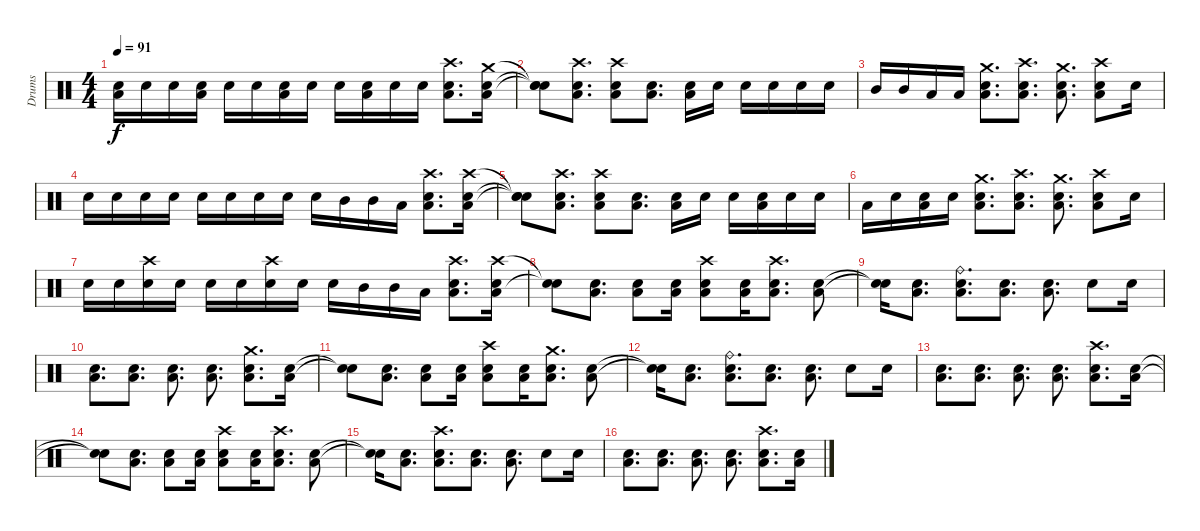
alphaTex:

\track ("Drums" "Drums") {instrument percussion}
\staff {score}
\articulation defaults
\ts (4 4)
\tempo 91
\clef neutral
\ks c
("Low Tom (hit)" "Electric Snare (hit)").16{dy f} "Electric Snare (hit)".16 "Electric Snare (hit)".16 ("Low Tom (hit)" "Electric Snare (hit)").16 "Electric Snare (hit)".16 "Electric Snare (hit)".16 ("Low Tom (hit)" "Electric Snare (hit)").16 "Electric Snare (hit)".16 "Electric Snare (hit)".16 ("Low Tom (hit)" "Electric Snare (hit)").16 "Electric Snare (hit)".16 "Electric Snare (hit)".16 ("Crash high (hit)" "Low Tom (hit)" "Electric Snare (hit)").8{d} ("Crash medium (hit)" "Low Tom (hit)" "Electric Snare (hit)").16 |
("Snare (hit)"{t} "Snare (hit)"{t} "Snare (hit)"{t}).8 ("Crash high (hit)" "Low Tom (hit)" "Electric Snare (hit)").8{d} ("Crash high (hit)" "Low Tom (hit)" "Electric Snare (hit)").8 ("Low Tom (hit)" "Electric Snare (hit)").8{d} ("Low Tom (hit)" "Electric Snare (hit)").16 "Electric Snare (hit)".16 "Electric Snare (hit)".16 "Electric Snare (hit)".16 "Electric Snare (hit)".16 "Electric Snare (hit)".16 |
"Mid Tom (hit)".16 "Mid Tom (hit)".16 "Low Tom (hit)".16 "Low Tom (hit)".16 ("Crash medium (hit)" "Low Tom (hit)" "Electric Snare (hit)").8{d} ("Crash high (hit)" "Low Tom (hit)" "Electric Snare (hit)").8{d} ("Crash medium (hit)" "Low Tom (hit)" "Electric Snare (hit)").8{d} ("Crash high (hit)" "Low Tom (hit)" "Electric Snare (hit)").8 "Electric Snare (hit)".16 |
"Electric Snare (hit)".16 "Electric Snare (hit)".16 "Electric Snare (hit)".16 "Electric Snare (hit)".16 "Electric Snare (hit)".16 "Electric Snare (hit)".16 "Electric Snare (hit)".16 "Electric Snare (hit)".16 "Electric Snare (hit)".16 "Mid Tom (hit)".16 "Mid Tom (hit)".16 "Low Tom (hit)".16 ("Crash high (hit)" "Low Tom (hit)" "Electric Snare (hit)").8{d} ("Crash high (hit)" "Low Tom (hit)" "Electric Snare (hit)").16 |
("Snare (hit)"{t} "Snare (hit)"{t} "Snare (hit)"{t}).8 ("Crash high (hit)" "Low Tom (hit)" "Electric Snare (hit)").8{d} ("Crash high (hit)" "Low Tom (hit)" "Electric Snare (hit)").8 ("Low Tom (hit)" "Electric Snare (hit)").8{d} ("Low Tom (hit)" "Electric Snare (hit)").16 "Electric Snare (hit)".16 "Electric Snare (hit)".16 ("Low Tom (hit)" "Electric Snare (hit)").16 "Electric Snare (hit)".16 "Electric Snare (hit)".16 |
"Low Tom (hit)".16 "Electric Snare (hit)".16 ("Low Tom (hit)" "Electric Snare (hit)").16 "Electric Snare (hit)".16 ("Crash medium (hit)" "Low Tom (hit)" "Electric Snare (hit)").8{d} ("Crash high (hit)" "Low Tom (hit)" "Electric Snare (hit)").8{d} ("Crash medium (hit)" "Low Tom (hit)" "Electric Snare (hit)").8{d} ("Crash high (hit)" "Low Tom (hit)" "Electric Snare (hit)").8 "Electric Snare (hit)".16 |
"Electric Snare (hit)".16 "Electric Snare (hit)".16 ("Crash high (hit)" "Electric Snare (hit)").16 "Electric Snare (hit)".16 "Electric Snare (hit)".16 "Electric Snare (hit)".16 ("Crash high (hit)" "Electric Snare (hit)").16 "Electric Snare (hit)".16 "Electric Snare (hit)".16 "Mid Tom (hit)".16 "Mid Tom (hit)".16 "Low Tom (hit)".16 ("Crash high (hit)" "Low Tom (hit)" "Electric Snare (hit)").8{d} ("Crash high (hit)" "Low Tom (hit)" "Electric Snare (hit)").16 |
("Snare (hit)"{t} "Snare (hit)"{t}).8 ("Low Tom (hit)" "Electric Snare (hit)").8{d} ("Low Tom (hit)" "Electric Snare (hit)").8 ("Low Tom (hit)" "Electric Snare (hit)").16 ("Crash high (hit)" "Low Tom (hit)" "Electric Snare (hit)").8 ("Low Tom (hit)" "Electric Snare (hit)").16 ("Crash high (hit)" "Low Tom (hit)" "Electric Snare (hit)").8{d} ("Low Tom (hit)" "Electric Snare (hit)").8 |
("Snare (hit)"{t} "Snare (hit)"{t}).16 ("Low Tom (hit)" "Electric Snare (hit)").8{d} ("Ride (bell)" "Low Tom (hit)" "Electric Snare (hit)").8{d} ("Low Tom (hit)" "Electric Snare (hit)").8{d} ("Low Tom (hit)" "Electric Snare (hit)").8{d} "Electric Snare (hit)".8 "Electric Snare (hit)".16 |
("Low Tom (hit)" "Electric Snare (hit)").8{d} ("Low Tom (hit)" "Electric Snare (hit)").8{d} ("Low Tom (hit)" "Electric Snare (hit)").8{d} ("Low Tom (hit)" "Electric Snare (hit)").8{d} ("Crash medium (hit)" "Low Tom (hit)" "Electric Snare (hit)").8{d} ("Low Tom (hit)" "Electric Snare (hit)").16 |
("Snare (hit)"{t} "Snare (hit)"{t}).8 ("Low Tom (hit)" "Electric Snare (hit)").8{d} ("Low Tom (hit)" "Electric Snare (hit)").8 ("Low Tom (hit)" "Electric Snare (hit)").16 ("Crash high (hit)" "Low Tom (hit)" "Electric Snare (hit)").8 ("Low Tom (hit)" "Electric Snare (hit)").16 ("Crash medium (hit)" "Low Tom (hit)" "Electric Snare (hit)").8{d} ("Low Tom (hit)" "Electric Snare (hit)").8 |
("Snare (hit)"{t} "Snare (hit)"{t}).16 ("Low Tom (hit)" "Electric Snare (hit)").8{d} ("Ride (bell)" "Low Tom (hit)" "Electric Snare (hit)").8{d} ("Low Tom (hit)" "Electric Snare (hit)").8{d} ("Low Tom (hit)" "Electric Snare (hit)").8{d} "Electric Snare (hit)".8 "Electric Snare (hit)".16 |
("Low Tom (hit)" "Electric Snare (hit)").8{d} ("Low Tom (hit)" "Electric Snare (hit)").8{d} ("Low Tom (hit)" "Electric Snare (hit)").8{d} ("Low Tom (hit)" "Electric Snare (hit)").8{d} ("Crash high (hit)" "Low Tom (hit)" "Electric Snare (hit)").8{d} ("Low Tom (hit)" "Electric Snare (hit)").16 |
("Snare (hit)"{t} "Snare (hit)"{t}).8 ("Low Tom (hit)" "Electric Snare (hit)").8{d} ("Low Tom (hit)" "Electric Snare (hit)").8 ("Low Tom (hit)" "Electric Snare (hit)").16 ("Crash high (hit)" "Low Tom (hit)" "Electric Snare (hit)").8 ("Low Tom (hit)" "Electric Snare (hit)").16 ("Crash high (hit)" "Low Tom (hit)" "Electric Snare (hit)").8{d} ("Low Tom (hit)" "Electric Snare (hit)").8 |
("Snare (hit)"{t} "Snare (hit)"{t}).16 ("Low Tom (hit)" "Electric Snare (hit)").8{d} ("Crash high (hit)" "Low Tom (hit)" "Electric Snare (hit)").8{d} ("Low Tom (hit)" "Electric Snare (hit)").8{d} ("Low Tom (hit)" "Electric Snare (hit)").8{d} "Electric Snare (hit)".8 "Electric Snare (hit)".16 |
("Low Tom (hit)" "Electric Snare (hit)").8{d} ("Low Tom (hit)" "Electric Snare (hit)").8{d} ("Low Tom (hit)" "Electric Snare (hit)").8{d} ("Low Tom (hit)" "Electric Snare (hit)").8{d} ("Crash high (hit)" "Low Tom (hit)" "Electric Snare (hit)").8{d} ("Low Tom (hit)" "Electric Snare (hit)").16
